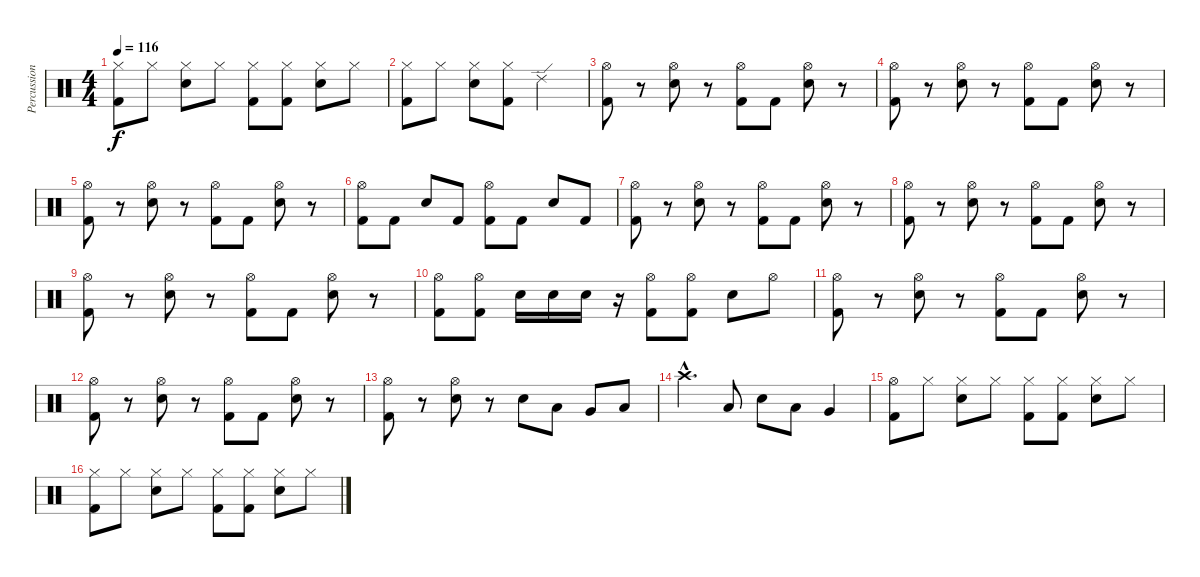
\track ("Percussion" "Percussion") {instrument percussion}
\staff {score}
\articulation defaults
\ts (4 4)
\tempo 116
\clef neutral
\ks c
("Hi-Hat (closed)" "Kick (hit) 2").8{dy f} "Hi-Hat (closed)".8 ("Hi-Hat (closed)" "Snare (hit) 2").8 "Hi-Hat (closed)".8 ("Hi-Hat (closed)" "Kick (hit) 2").8 ("Hi-Hat (closed)" "Kick (hit) 2").8 ("Hi-Hat (closed)" "Snare (hit) 2").8 "Hi-Hat (closed)".8 |
("Hi-Hat (closed)" "Kick (hit) 2").8 "Hi-Hat (closed)".8 ("Hi-Hat (closed)" "Snare (hit) 2").8 ("Hi-Hat (closed)" "Kick (hit) 2").8 "Ride (edge) 2".2 |
("Hi-Hat (open)" "Kick (hit) 2").8 r.8 ("Hi-Hat (open)" "Snare (hit) 2").8 r.8 ("Hi-Hat (open)" "Kick (hit) 2").8 "Kick (hit) 2".8 ("Hi-Hat (open)" "Snare (hit) 2").8 r.8 |
("Hi-Hat (open)" "Kick (hit) 2").8 r.8 ("Hi-Hat (open)" "Snare (hit) 2").8 r.8 ("Hi-Hat (open)" "Kick (hit) 2").8 "Kick (hit) 2".8 ("Hi-Hat (open)" "Snare (hit) 2").8 r.8 |
("Hi-Hat (open)" "Kick (hit) 2").8 r.8 ("Hi-Hat (open)" "Snare (hit) 2").8 r.8 ("Hi-Hat (open)" "Kick (hit) 2").8 "Kick (hit) 2".8 ("Hi-Hat (open)" "Snare (hit) 2").8 r.8 |
("Hi-Hat (open)" "Kick (hit) 2").8 "Kick (hit) 2".8 "Snare (hit) 2".8 "Kick (hit) 2".8 ("Hi-Hat (open)" "Kick (hit) 2").8 "Kick (hit) 2".8 "Snare (hit) 2".8 "Kick (hit) 2".8 |
("Hi-Hat (open)" "Kick (hit) 2").8 r.8 ("Hi-Hat (open)" "Snare (hit) 2").8 r.8 ("Hi-Hat (open)" "Kick (hit) 2").8 "Kick (hit) 2".8 ("Hi-Hat (open)" "Snare (hit) 2").8 r.8 |
("Hi-Hat (open)" "Kick (hit) 2").8 r.8 ("Hi-Hat (open)" "Snare (hit) 2").8 r.8 ("Hi-Hat (open)" "Kick (hit) 2").8 "Kick (hit) 2".8 ("Hi-Hat (open)" "Snare (hit) 2").8 r.8 |
("Hi-Hat (open)" "Kick (hit) 2").8 r.8 ("Hi-Hat (open)" "Snare (hit) 2").8 r.8 ("Hi-Hat (open)" "Kick (hit) 2").8 "Kick (hit) 2".8 ("Hi-Hat (open)" "Snare (hit) 2").8 r.8 |
("Hi-Hat (open)" "Kick (hit) 2").8 ("Hi-Hat (open)" "Kick (hit) 2").8 "Snare (hit) 2".16 "Snare (hit) 2".16 "Snare (hit) 2".16 r.16 ("Hi-Hat (open)" "Kick (hit) 2").8 ("Hi-Hat (open)" "Kick (hit) 2").8 "Snare (hit) 2".8 "Hi-Hat (open)".8 |
("Hi-Hat (open)" "Kick (hit) 2").8 r.8 ("Hi-Hat (open)" "Snare (hit) 2").8 r.8 ("Hi-Hat (open)" "Kick (hit) 2").8 "Kick (hit) 2".8 ("Hi-Hat (open)" "Snare (hit) 2").8 r.8 |
("Hi-Hat (open)" "Kick (hit) 2").8 r.8 ("Hi-Hat (open)" "Snare (hit) 2").8 r.8 ("Hi-Hat (open)" "Kick (hit) 2").8 "Kick (hit) 2".8 ("Hi-Hat (open)" "Snare (hit) 2").8 r.8 |
("Hi-Hat (open)" "Kick (hit) 2").8 r.8 ("Hi-Hat (open)" "Snare (hit) 2").8 r.8 "Snare (hit) 2".8 "Low Tom (hit)".8 "Very Low Tom (hit)".8 "Low Floor Tom (hit)".8 |
"Crash high (hit)"{hac}.4{d} "Low Floor Tom (hit)".8 "Snare (hit) 2".8 "Low Tom (hit)".8 "Very Low Tom (hit)".4 |
("Hi-Hat (open)" "Kick (hit) 2").8 "Hi-Hat (closed)".8 ("Hi-Hat (closed)" "Snare (hit) 2").8 "Hi-Hat (closed)".8 ("Hi-Hat (closed)" "Kick (hit) 2").8 ("Hi-Hat (closed)" "Kick (hit) 2").8 ("Hi-Hat (closed)" "Snare (hit) 2").8 "Hi-Hat (closed)".8 |
("Hi-Hat (closed)" "Kick (hit) 2").8 "Hi-Hat (closed)".8 ("Hi-Hat (closed)" "Snare (hit) 2").8 "Hi-Hat (closed)".8 ("Hi-Hat (closed)" "Kick (hit) 2").8 ("Hi-Hat (closed)" "Kick (hit) 2").8 ("Hi-Hat (closed)" "Snare (hit) 2").8 "Hi-Hat (closed)".8
